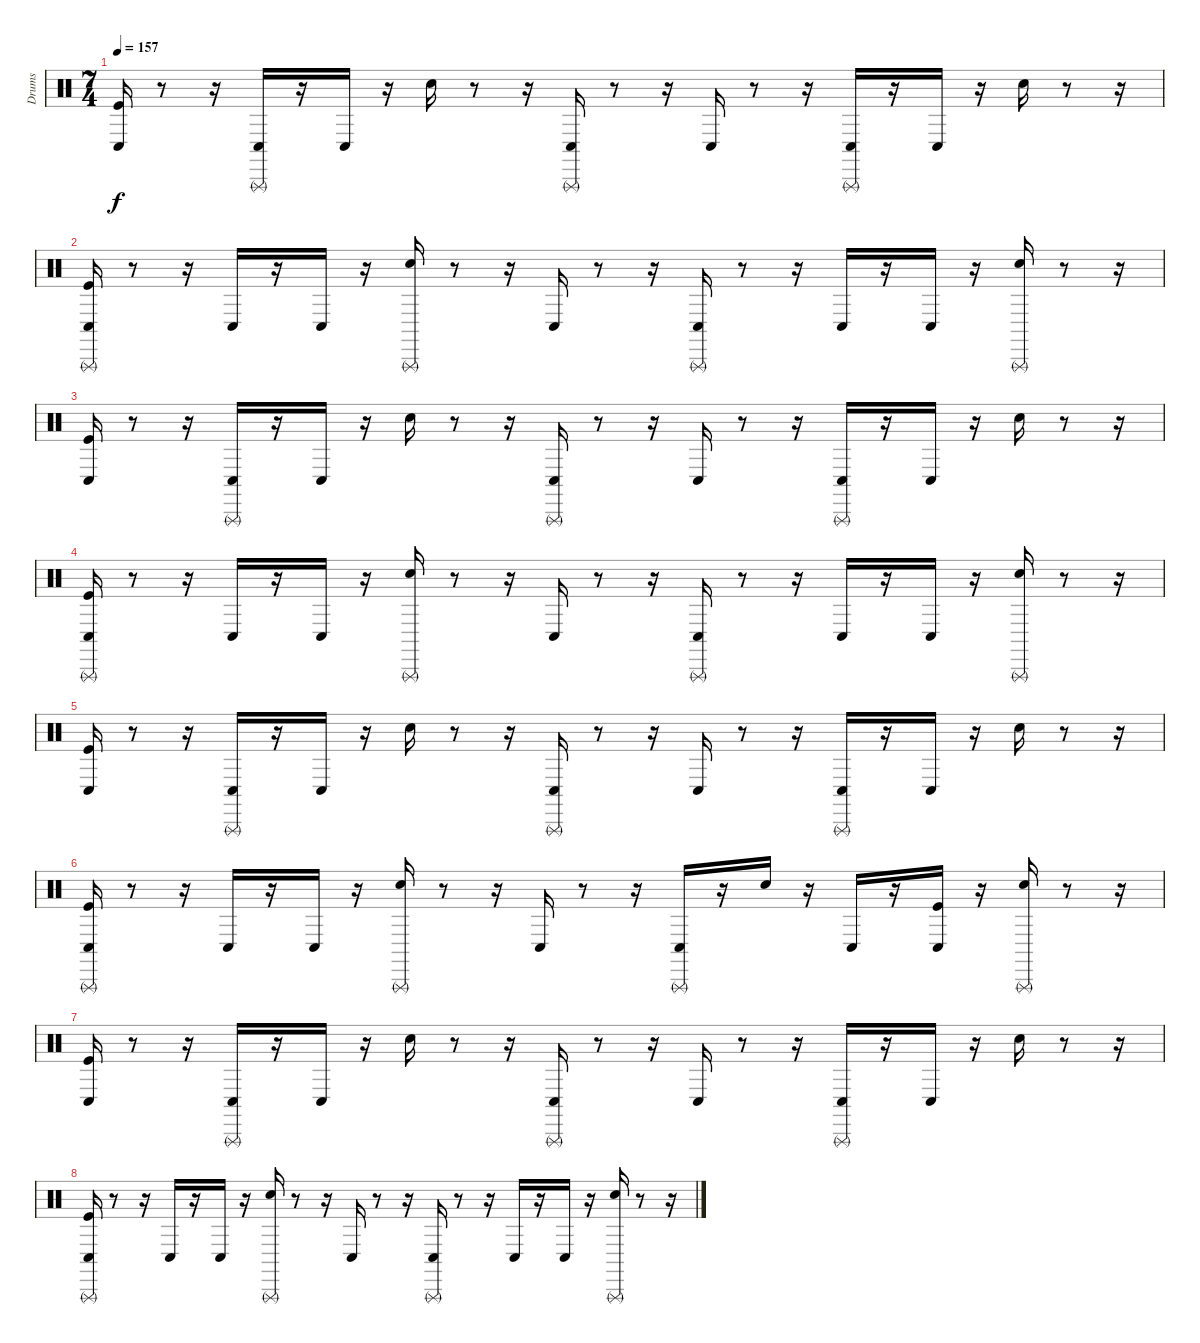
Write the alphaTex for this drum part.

\track ("Drums" "Drums") {instrument percussion}
\staff {score}
\articulation defaults
\ts (7 4)
\tempo 157
\clef neutral
\ks c
("Conga low (hit)" "Kick (hit)").16{dy f} r.8 r.16 ("Triangle (rnute)" "Conga low (hit)").16 r.16 "Conga low (hit)".16 r.16 "Snare (hit) 2".16 r.8 r.16 ("Triangle (rnute)" "Conga low (hit)").16 r.8 r.16 "Conga low (hit)".16 r.8 r.16 ("Triangle (rnute)" "Conga low (hit)").16 r.16 "Conga low (hit)".16 r.16 "Snare (hit) 2".16 r.8 r.16 |
("Kick (hit)" "Conga low (hit)" "Triangle (rnute)").16 r.8 r.16 "Conga low (hit)".16 r.16 "Conga low (hit)".16 r.16 ("Triangle (rnute)" "Snare (hit) 2").16 r.8 r.16 "Conga low (hit)".16 r.8 r.16 ("Triangle (rnute)" "Conga low (hit)").16 r.8 r.16 "Conga low (hit)".16 r.16 "Conga low (hit)".16 r.16 ("Snare (hit) 2" "Triangle (rnute)").16 r.8 r.16 |
("Kick (hit)" "Conga low (hit)").16 r.8 r.16 ("Conga low (hit)" "Triangle (rnute)").16 r.16 "Conga low (hit)".16 r.16 "Snare (hit) 2".16 r.8 r.16 ("Conga low (hit)" "Triangle (rnute)").16 r.8 r.16 "Conga low (hit)".16 r.8 r.16 ("Conga low (hit)" "Triangle (rnute)").16 r.16 "Conga low (hit)".16 r.16 "Snare (hit) 2".16 r.8 r.16 |
("Conga low (hit)" "Triangle (rnute)" "Kick (hit)").16 r.8 r.16 "Conga low (hit)".16 r.16 "Conga low (hit)".16 r.16 ("Triangle (rnute)" "Snare (hit) 2").16 r.8 r.16 "Conga low (hit)".16 r.8 r.16 ("Triangle (rnute)" "Conga low (hit)").16 r.8 r.16 "Conga low (hit)".16 r.16 "Conga low (hit)".16 r.16 ("Snare (hit) 2" "Triangle (rnute)").16 r.8 r.16 |
("Kick (hit)" "Conga low (hit)").16 r.8 r.16 ("Conga low (hit)" "Triangle (rnute)").16 r.16 "Conga low (hit)".16 r.16 "Snare (hit) 2".16 r.8 r.16 ("Conga low (hit)" "Triangle (rnute)").16 r.8 r.16 "Conga low (hit)".16 r.8 r.16 ("Triangle (rnute)" "Conga low (hit)").16 r.16 "Conga low (hit)".16 r.16 "Snare (hit) 2".16 r.8 r.16 |
("Conga low (hit)" "Triangle (rnute)" "Kick (hit)").16 r.8 r.16 "Conga low (hit)".16 r.16 "Conga low (hit)".16 r.16 ("Triangle (rnute)" "Snare (hit) 2").16 r.8 r.16 "Conga low (hit)".16 r.8 r.16 ("Triangle (rnute)" "Conga low (hit)").16 r.16 "Snare (hit) 2".16 r.16 "Conga low (hit)".16 r.16 ("Kick (hit)" "Conga low (hit)").16 r.16 ("Snare (hit) 2" "Triangle (rnute)").16 r.8 r.16 |
("Kick (hit)" "Conga low (hit)").16 r.8 r.16 ("Triangle (rnute)" "Conga low (hit)").16 r.16 "Conga low (hit)".16 r.16 "Snare (hit) 2".16 r.8 r.16 ("Conga low (hit)" "Triangle (rnute)").16 r.8 r.16 "Conga low (hit)".16 r.8 r.16 ("Triangle (rnute)" "Conga low (hit)").16 r.16 "Conga low (hit)".16 r.16 "Snare (hit) 2".16 r.8 r.16 |
("Kick (hit)" "Triangle (rnute)" "Conga low (hit)").16 r.8 r.16 "Conga low (hit)".16 r.16 "Conga low (hit)".16 r.16 ("Triangle (rnute)" "Snare (hit) 2").16 r.8 r.16 "Conga low (hit)".16 r.8 r.16 ("Triangle (rnute)" "Conga low (hit)").16 r.8 r.16 "Conga low (hit)".16 r.16 "Conga low (hit)".16 r.16 ("Snare (hit) 2" "Triangle (rnute)").16 r.8 r.16
